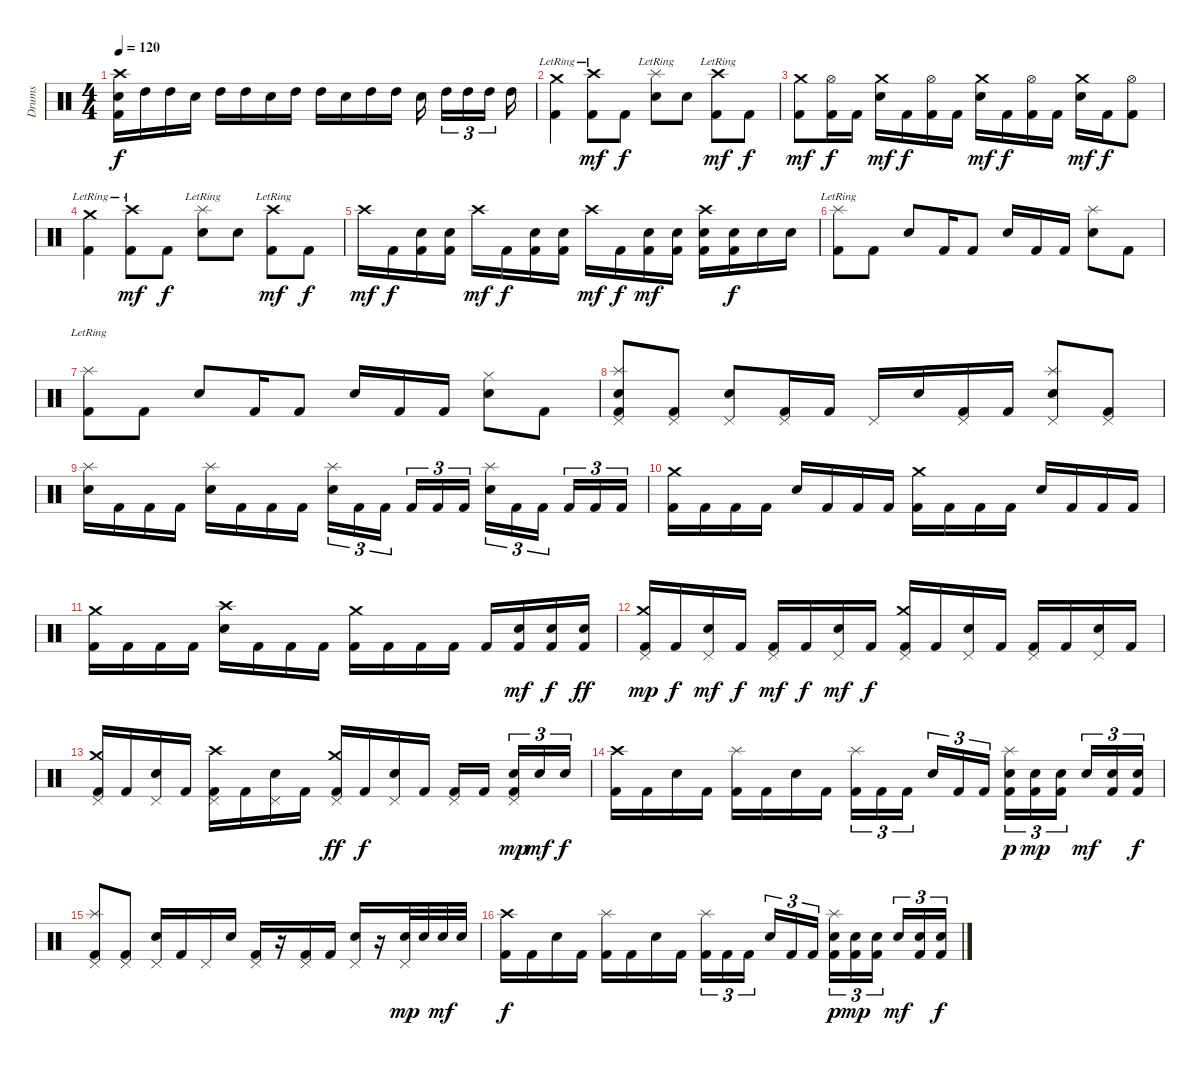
\track ("Drums" "Drums") {instrument percussion}
\staff {score}
\articulation defaults
\ts (4 4)
\tempo 120
\clef neutral
\ks c
("Crash high (hit)" "Electric Snare (hit)" "Kick (hit) 2").16{dy f} "High Tom (hit)".16 "High Tom (hit)".16 "Electric Snare (hit)".16 "High Tom (hit)".16 "High Tom (hit)".16 "Electric Snare (hit)".16 "High Tom (hit)".16 "High Tom (hit)".16 "Electric Snare (hit)".16 "High Tom (hit)".16 "High Tom (hit)".16 "Electric Snare (hit)".16 "High Tom (hit)".16{tu (3 2)} "High Tom (hit)".16{tu (3 2)} "High Tom (hit)".16{tu (3 2)} "High Tom (hit)".16 |
("Crash medium (hit)"{lr} "Kick (hit) 2").4 ("Crash high (hit)"{lr} "Kick (hit) 2").8{dy mf} "Kick (hit) 2".8{dy f} ("Splash (hit)"{lr} "Electric Snare (hit)").8 "Electric Snare (hit)".8 ("Crash high (hit)"{lr} "Kick (hit) 2").8{dy mf} "Kick (hit) 2".8{dy f} |
("Crash medium (hit)" "Kick (hit) 2").8{dy mf} ("Hi-Hat (open)" "Kick (hit) 2").16{dy f} "Kick (hit) 2".16 ("Crash medium (hit)" "Electric Snare (hit)").16{dy mf} "Kick (hit) 2".16{dy f} ("Hi-Hat (open)" "Kick (hit) 2").16 "Kick (hit) 2".16 ("Crash medium (hit)" "Electric Snare (hit)").16{dy mf} "Kick (hit) 2".16{dy f} ("Hi-Hat (open)" "Kick (hit) 2").16 "Kick (hit) 2".16 ("Crash medium (hit)" "Electric Snare (hit)").16{dy mf} "Kick (hit) 2".16{dy f} ("Hi-Hat (open)" "Kick (hit) 2").8 |
("Crash medium (hit)"{lr} "Kick (hit) 2").4 ("Crash high (hit)"{lr} "Kick (hit) 2").8{dy mf} "Kick (hit) 2".8{dy f} ("Splash (hit)"{lr} "Electric Snare (hit)").8 "Electric Snare (hit)".8 ("Crash high (hit)"{lr} "Kick (hit) 2").8{dy mf} "Kick (hit) 2".8{dy f} |
"Crash high (hit)".16{dy mf} "Kick (hit) 2".16{dy f} ("Electric Snare (hit)" "Kick (hit) 2").16 ("Electric Snare (hit)" "Kick (hit) 2").16 "Crash high (hit)".16{dy mf} "Kick (hit) 2".16{dy f} ("Electric Snare (hit)" "Kick (hit) 2").16 ("Electric Snare (hit)" "Kick (hit) 2").16 "Crash high (hit)".16{dy mf} "Kick (hit) 2".16{dy f} ("Electric Snare (hit)" "Kick (hit) 2").16{dy mf} ("Electric Snare (hit)" "Kick (hit) 2").16 ("Crash high (hit)" "Electric Snare (hit)" "Kick (hit) 2").16 ("Electric Snare (hit)" "Kick (hit) 2").16{dy f} "Electric Snare (hit)".16 "Electric Snare (hit)".16 |
("Splash (hit)"{lr} "Kick (hit) 2").8 "Kick (hit) 2".8 "Electric Snare (hit)".8 "Kick (hit) 2".16 "Kick (hit) 2".8 "Electric Snare (hit)".16 "Kick (hit) 2".16 "Kick (hit) 2".16 ("Splash (hit)" "Electric Snare (hit)").8 "Kick (hit) 2".8 |
("Splash (hit)"{lr} "Kick (hit) 2").8 "Kick (hit) 2".8 "Electric Snare (hit)".8 "Kick (hit) 2".16 "Kick (hit) 2".8 "Electric Snare (hit)".16 "Kick (hit) 2".16 "Kick (hit) 2".16 ("Hi-Hat (closed)" "Electric Snare (hit)").8 "Kick (hit) 2".8 |
("Splash (hit)" "Pedal Hi-Hat (hit)" "Electric Snare (hit)" "Kick (hit) 2").8 ("Pedal Hi-Hat (hit)" "Kick (hit) 2").8 ("Pedal Hi-Hat (hit)" "Electric Snare (hit)").8 ("Pedal Hi-Hat (hit)" "Kick (hit) 2").16 "Kick (hit) 2".16 "Pedal Hi-Hat (hit)".16 "Electric Snare (hit)".16 ("Pedal Hi-Hat (hit)" "Kick (hit) 2").16 "Kick (hit) 2".16 ("Splash (hit)" "Pedal Hi-Hat (hit)" "Electric Snare (hit)").8 ("Pedal Hi-Hat (hit)" "Kick (hit) 2").8 |
("Splash (hit)" "Electric Snare (hit)").16 "Kick (hit) 2".16 "Kick (hit) 2".16 "Kick (hit) 2".16 ("Splash (hit)" "Electric Snare (hit)").16 "Kick (hit) 2".16 "Kick (hit) 2".16 "Kick (hit) 2".16 ("Splash (hit)" "Electric Snare (hit)").16{tu (3 2)} "Kick (hit) 2".16{tu (3 2)} "Kick (hit) 2".16{tu (3 2)} "Kick (hit) 2".16{tu (3 2)} "Kick (hit) 2".16{tu (3 2)} "Kick (hit) 2".16{tu (3 2)} ("Splash (hit)" "Electric Snare (hit)").16{tu (3 2)} "Kick (hit) 2".16{tu (3 2)} "Kick (hit) 2".16{tu (3 2)} "Kick (hit) 2".16{tu (3 2)} "Kick (hit) 2".16{tu (3 2)} "Kick (hit) 2".16{tu (3 2)} |
("Crash medium (hit)" "Kick (hit) 2").16 "Kick (hit) 2".16 "Kick (hit) 2".16 "Kick (hit) 2".16 "Electric Snare (hit)".16 "Kick (hit) 2".16 "Kick (hit) 2".16 "Kick (hit) 2".16 ("Crash medium (hit)" "Kick (hit) 2").16 "Kick (hit) 2".16 "Kick (hit) 2".16 "Kick (hit) 2".16 "Electric Snare (hit)".16 "Kick (hit) 2".16 "Kick (hit) 2".16 "Kick (hit) 2".16 |
("Crash medium (hit)" "Kick (hit) 2").16 "Kick (hit) 2".16 "Kick (hit) 2".16 "Kick (hit) 2".16 ("Crash high (hit)" "Electric Snare (hit)").16 "Kick (hit) 2".16 "Kick (hit) 2".16 "Kick (hit) 2".16 ("Crash medium (hit)" "Kick (hit) 2").16 "Kick (hit) 2".16 "Kick (hit) 2".16 "Kick (hit) 2".16 "Kick (hit) 2".16 ("Electric Snare (hit)" "Kick (hit) 2").16{dy mf} ("Electric Snare (hit)" "Kick (hit) 2").16{dy f} ("Electric Snare (hit)" "Kick (hit) 2").16{dy ff} |
("Crash medium (hit)" "Pedal Hi-Hat (hit)" "Kick (hit) 2").16{dy mp} "Kick (hit) 2".16{dy f} ("Pedal Hi-Hat (hit)" "Electric Snare (hit)").16{dy mf} "Kick (hit) 2".16{dy f} ("Pedal Hi-Hat (hit)" "Kick (hit) 2").16{dy mf} "Kick (hit) 2".16{dy f} ("Pedal Hi-Hat (hit)" "Electric Snare (hit)").16{dy mf} "Kick (hit) 2".16{dy f} ("Crash medium (hit)" "Pedal Hi-Hat (hit)" "Kick (hit) 2").16 "Kick (hit) 2".16 ("Pedal Hi-Hat (hit)" "Electric Snare (hit)").16 "Kick (hit) 2".16 ("Pedal Hi-Hat (hit)" "Kick (hit) 2").16 "Kick (hit) 2".16 ("Pedal Hi-Hat (hit)" "Electric Snare (hit)").16 "Kick (hit) 2".16 |
("Crash medium (hit)" "Pedal Hi-Hat (hit)" "Kick (hit) 2").16 "Kick (hit) 2".16 ("Pedal Hi-Hat (hit)" "Electric Snare (hit)").16 "Kick (hit) 2".16 ("Crash high (hit)" "Pedal Hi-Hat (hit)" "Kick (hit) 2").16 "Kick (hit) 2".16 ("Pedal Hi-Hat (hit)" "Electric Snare (hit)").16 "Kick (hit) 2".16 ("Crash medium (hit)" "Pedal Hi-Hat (hit)" "Kick (hit) 2").16{dy ff} "Kick (hit) 2".16{dy f} ("Pedal Hi-Hat (hit)" "Electric Snare (hit)").16 "Kick (hit) 2".16 ("Pedal Hi-Hat (hit)" "Kick (hit) 2").16 "Kick (hit) 2".16 ("Pedal Hi-Hat (hit)" "Electric Snare (hit)" "Kick (hit) 2").16{tu (3 2) dy mp} "Electric Snare (hit)".16{tu (3 2) dy mf} "Electric Snare (hit)".16{tu (3 2) dy f} |
("Crash high (hit)" "Kick (hit) 2").16 "Kick (hit) 2".16 "Electric Snare (hit)".16 "Kick (hit) 2".16 ("Splash (hit)" "Kick (hit) 2").16 "Kick (hit) 2".16 "Electric Snare (hit)".16 "Kick (hit) 2".16 ("Splash (hit)" "Kick (hit) 2").16{tu (3 2)} "Kick (hit) 2".16{tu (3 2)} "Kick (hit) 2".16{tu (3 2)} "Electric Snare (hit)".16{tu (3 2)} "Kick (hit) 2".16{tu (3 2)} "Kick (hit) 2".16{tu (3 2)} ("Splash (hit)" "Electric Snare (hit)" "Kick (hit) 2").16{tu (3 2) dy p} ("Electric Snare (hit)" "Kick (hit) 2").16{tu (3 2) dy mp} ("Electric Snare (hit)" "Kick (hit) 2").16{tu (3 2)} "Electric Snare (hit)".16{tu (3 2) dy mf} ("Electric Snare (hit)" "Kick (hit) 2").16{tu (3 2)} ("Electric Snare (hit)" "Kick (hit) 2").16{tu (3 2) dy f} |
("Splash (hit)" "Pedal Hi-Hat (hit)" "Kick (hit) 2").8 ("Pedal Hi-Hat (hit)" "Kick (hit) 2").8 ("Pedal Hi-Hat (hit)" "Electric Snare (hit)").16 "Kick (hit) 2".16 "Pedal Hi-Hat (hit)".16 "Electric Snare (hit)".16 ("Pedal Hi-Hat (hit)" "Kick (hit) 2").16 r.16 ("Pedal Hi-Hat (hit)" "Kick (hit) 2").16 "Kick (hit) 2".16 ("Pedal Hi-Hat (hit)" "Electric Snare (hit)").16 r.16 ("Pedal Hi-Hat (hit)" "Electric Snare (hit)").32{dy mp} "Electric Snare (hit)".32 "Electric Snare (hit)".32{dy mf} "Electric Snare (hit)".32 |
("Crash high (hit)" "Kick (hit) 2").16{dy f} "Kick (hit) 2".16 "Electric Snare (hit)".16 "Kick (hit) 2".16 ("Splash (hit)" "Kick (hit) 2").16 "Kick (hit) 2".16 "Electric Snare (hit)".16 "Kick (hit) 2".16 ("Splash (hit)" "Kick (hit) 2").16{tu (3 2)} "Kick (hit) 2".16{tu (3 2)} "Kick (hit) 2".16{tu (3 2)} "Electric Snare (hit)".16{tu (3 2)} "Kick (hit) 2".16{tu (3 2)} "Kick (hit) 2".16{tu (3 2)} ("Splash (hit)" "Electric Snare (hit)" "Kick (hit) 2").16{tu (3 2) dy p} ("Electric Snare (hit)" "Kick (hit) 2").16{tu (3 2) dy mp} ("Electric Snare (hit)" "Kick (hit) 2").16{tu (3 2)} "Electric Snare (hit)".16{tu (3 2) dy mf} ("Electric Snare (hit)" "Kick (hit) 2").16{tu (3 2)} ("Electric Snare (hit)" "Kick (hit) 2").16{tu (3 2) dy f}
